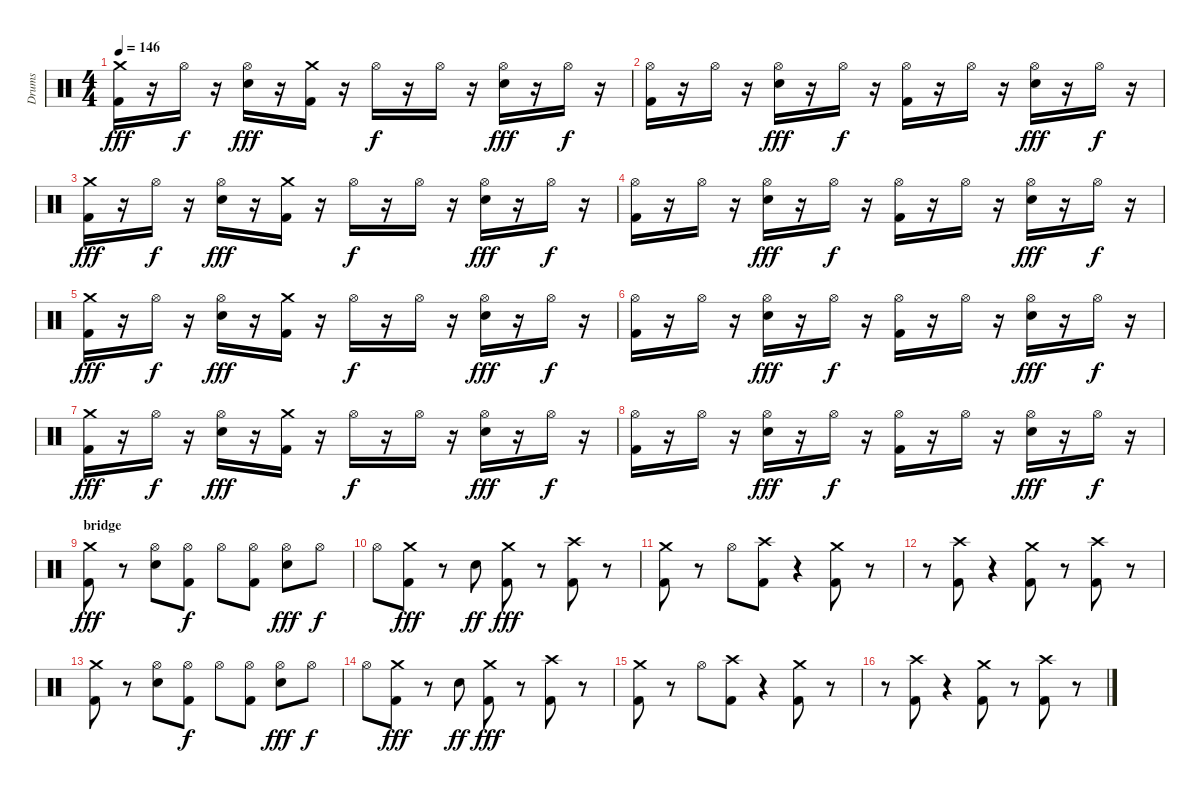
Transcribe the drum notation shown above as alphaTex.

\track ("Drums" "Drums") {instrument percussion}
\staff {score}
\articulation defaults
\ts (4 4)
\tempo 146
\clef neutral
\ks c
("Kick (hit) 2" "Crash medium (hit)").16{dy fff} r.16 "Hi-Hat (open)".16{dy f} r.16 ("Snare (hit) 2" "Hi-Hat (open)").16{dy fff} r.16 ("Kick (hit) 2" "Crash medium (hit)").16 r.16 "Hi-Hat (open)".16{dy f} r.16 "Hi-Hat (open)".16 r.16 ("Snare (hit) 2" "Hi-Hat (open)").16{dy fff} r.16 "Hi-Hat (open)".16{dy f} r.16 |
("Kick (hit) 2" "Hi-Hat (open)").16 r.16 "Hi-Hat (open)".16 r.16 ("Snare (hit) 2" "Hi-Hat (open)").16{dy fff} r.16 "Hi-Hat (open)".16{dy f} r.16 ("Kick (hit) 2" "Hi-Hat (open)").16 r.16 "Hi-Hat (open)".16 r.16 ("Snare (hit) 2" "Hi-Hat (open)").16{dy fff} r.16 "Hi-Hat (open)".16{dy f} r.16 |
("Kick (hit) 2" "Crash medium (hit)").16{dy fff} r.16 "Hi-Hat (open)".16{dy f} r.16 ("Snare (hit) 2" "Hi-Hat (open)").16{dy fff} r.16 ("Kick (hit) 2" "Crash medium (hit)").16 r.16 "Hi-Hat (open)".16{dy f} r.16 "Hi-Hat (open)".16 r.16 ("Snare (hit) 2" "Hi-Hat (open)").16{dy fff} r.16 "Hi-Hat (open)".16{dy f} r.16 |
("Kick (hit) 2" "Hi-Hat (open)").16 r.16 "Hi-Hat (open)".16 r.16 ("Snare (hit) 2" "Hi-Hat (open)").16{dy fff} r.16 "Hi-Hat (open)".16{dy f} r.16 ("Kick (hit) 2" "Hi-Hat (open)").16 r.16 "Hi-Hat (open)".16 r.16 ("Snare (hit) 2" "Hi-Hat (open)").16{dy fff} r.16 "Hi-Hat (open)".16{dy f} r.16 |
("Kick (hit) 2" "Crash medium (hit)").16{dy fff} r.16 "Hi-Hat (open)".16{dy f} r.16 ("Snare (hit) 2" "Hi-Hat (open)").16{dy fff} r.16 ("Kick (hit) 2" "Crash medium (hit)").16 r.16 "Hi-Hat (open)".16{dy f} r.16 "Hi-Hat (open)".16 r.16 ("Snare (hit) 2" "Hi-Hat (open)").16{dy fff} r.16 "Hi-Hat (open)".16{dy f} r.16 |
("Kick (hit) 2" "Hi-Hat (open)").16 r.16 "Hi-Hat (open)".16 r.16 ("Snare (hit) 2" "Hi-Hat (open)").16{dy fff} r.16 "Hi-Hat (open)".16{dy f} r.16 ("Kick (hit) 2" "Hi-Hat (open)").16 r.16 "Hi-Hat (open)".16 r.16 ("Snare (hit) 2" "Hi-Hat (open)").16{dy fff} r.16 "Hi-Hat (open)".16{dy f} r.16 |
("Kick (hit) 2" "Crash medium (hit)").16{dy fff} r.16 "Hi-Hat (open)".16{dy f} r.16 ("Snare (hit) 2" "Hi-Hat (open)").16{dy fff} r.16 ("Kick (hit) 2" "Crash medium (hit)").16 r.16 "Hi-Hat (open)".16{dy f} r.16 "Hi-Hat (open)".16 r.16 ("Snare (hit) 2" "Hi-Hat (open)").16{dy fff} r.16 "Hi-Hat (open)".16{dy f} r.16 |
("Kick (hit) 2" "Hi-Hat (open)").16 r.16 "Hi-Hat (open)".16 r.16 ("Snare (hit) 2" "Hi-Hat (open)").16{dy fff} r.16 "Hi-Hat (open)".16{dy f} r.16 ("Kick (hit) 2" "Hi-Hat (open)").16 r.16 "Hi-Hat (open)".16 r.16 ("Snare (hit) 2" "Hi-Hat (open)").16{dy fff} r.16 "Hi-Hat (open)".16{dy f} r.16 |
\section ("" "bridge")
("Kick (hit) 2" "Crash medium (hit)").8{dy fff} r.8 ("Snare (hit) 2" "Hi-Hat (open)").8 ("Kick (hit) 2" "Hi-Hat (open)").8{dy f} "Hi-Hat (open)".8 ("Kick (hit) 2" "Hi-Hat (open)").8 ("Snare (hit) 2" "Hi-Hat (open)").8{dy fff} "Hi-Hat (open)".8{dy f} |
"Hi-Hat (open)".8 ("Kick (hit) 2" "Crash medium (hit)").8{dy fff} r.8 "Snare (hit) 2".8{dy ff} ("Kick (hit) 2" "Crash medium (hit)").8{dy fff} r.8 ("Kick (hit) 2" "Crash high (hit)").8 r.8 |
("Kick (hit) 2" "Crash medium (hit)").8 r.8 "Hi-Hat (open)".8 ("Kick (hit) 2" "Crash high (hit)").8 r.4 ("Kick (hit) 2" "Crash medium (hit)").8 r.8 |
r.8 ("Kick (hit) 2" "Crash high (hit)").8 r.4 ("Kick (hit) 2" "Crash medium (hit)").8 r.8 ("Kick (hit) 2" "Crash high (hit)").8 r.8 |
("Kick (hit) 2" "Crash medium (hit)").8 r.8 ("Snare (hit) 2" "Hi-Hat (open)").8 ("Kick (hit) 2" "Hi-Hat (open)").8{dy f} "Hi-Hat (open)".8 ("Kick (hit) 2" "Hi-Hat (open)").8 ("Snare (hit) 2" "Hi-Hat (open)").8{dy fff} "Hi-Hat (open)".8{dy f} |
"Hi-Hat (open)".8 ("Kick (hit) 2" "Crash medium (hit)").8{dy fff} r.8 "Snare (hit) 2".8{dy ff} ("Kick (hit) 2" "Crash medium (hit)").8{dy fff} r.8 ("Kick (hit) 2" "Crash high (hit)").8 r.8 |
("Kick (hit) 2" "Crash medium (hit)").8 r.8 "Hi-Hat (open)".8 ("Kick (hit) 2" "Crash high (hit)").8 r.4 ("Kick (hit) 2" "Crash medium (hit)").8 r.8 |
r.8 ("Kick (hit) 2" "Crash high (hit)").8 r.4 ("Kick (hit) 2" "Crash medium (hit)").8 r.8 ("Kick (hit) 2" "Crash high (hit)").8 r.8
